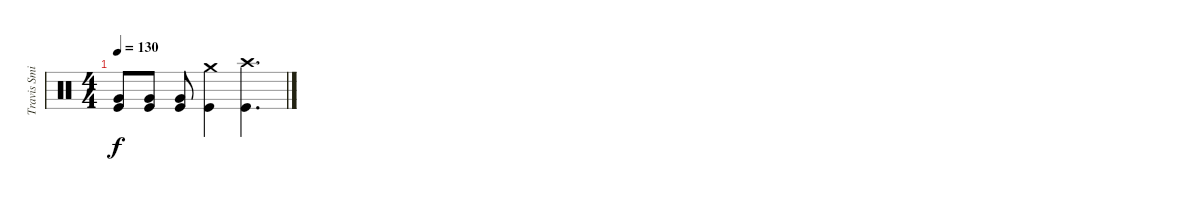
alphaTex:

\track ("Travis Smith" "Travis Smi") {instrument percussion}
\staff {score}
\articulation defaults
\ts (4 4)
\tempo 130
\clef neutral
\ks c
("Very Low Tom (hit)" "Kick (hit)").8{dy f} ("Very Low Tom (hit)" "Kick (hit)").8 ("Very Low Tom (hit)" "Kick (hit)").8 ("Crash medium (hit)" "Kick (hit)").4 ("Crash high (hit)" "Kick (hit)").4{d}
